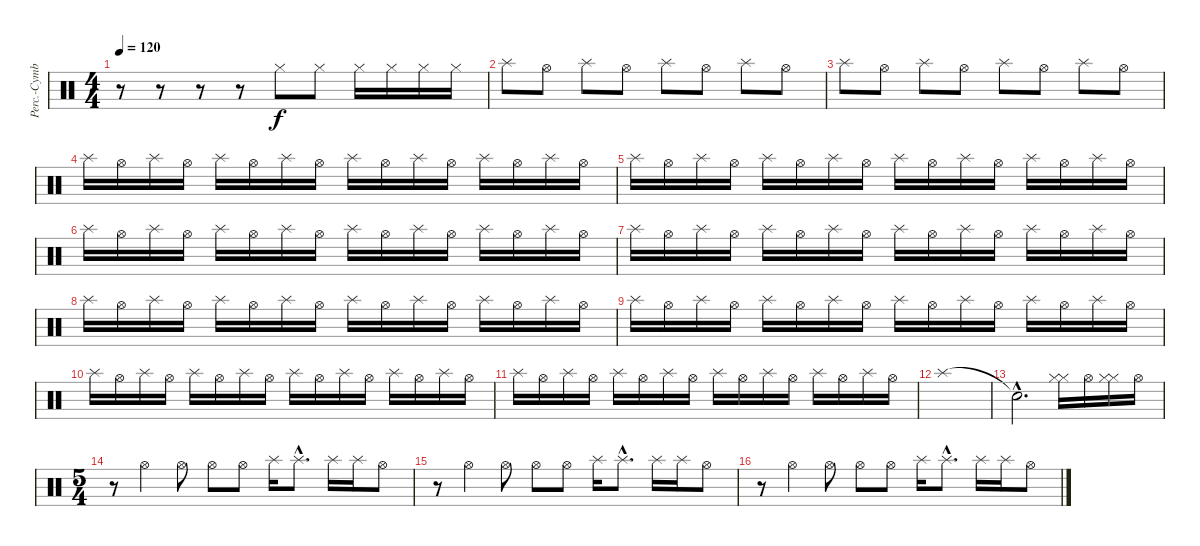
\track ("Perc.-Cymbals 1" "Perc.-Cymb") {instrument percussion}
\staff {score}
\articulation defaults
\ts (4 4)
\tempo 120
\clef neutral
\ks c
r.8{dy f} r.8 r.8 r.8 "Hi-Hat (closed)".8 "Hi-Hat (closed)".8 "Hi-Hat (closed)".16 "Hi-Hat (closed)".16 "Hi-Hat (closed)".16 "Hi-Hat (closed)".16 |
"Splash (hit)".8 "Hi-Hat (open)".8 "Splash (hit)".8 "Hi-Hat (open)".8 "Splash (hit)".8 "Hi-Hat (open)".8 "Splash (hit)".8 "Hi-Hat (open)".8 |
"Splash (hit)".8 "Hi-Hat (open)".8 "Splash (hit)".8 "Hi-Hat (open)".8 "Splash (hit)".8 "Hi-Hat (open)".8 "Splash (hit)".8 "Hi-Hat (open)".8 |
"Splash (hit)".16 "Hi-Hat (open)".16 "Splash (hit)".16 "Hi-Hat (open)".16 "Splash (hit)".16 "Hi-Hat (open)".16 "Splash (hit)".16 "Hi-Hat (open)".16 "Splash (hit)".16 "Hi-Hat (open)".16 "Splash (hit)".16 "Hi-Hat (open)".16 "Splash (hit)".16 "Hi-Hat (open)".16 "Splash (hit)".16 "Hi-Hat (open)".16 |
"Splash (hit)".16 "Hi-Hat (open)".16 "Splash (hit)".16 "Hi-Hat (open)".16 "Splash (hit)".16 "Hi-Hat (open)".16 "Splash (hit)".16 "Hi-Hat (open)".16 "Splash (hit)".16 "Hi-Hat (open)".16 "Splash (hit)".16 "Hi-Hat (open)".16 "Splash (hit)".16 "Hi-Hat (open)".16 "Splash (hit)".16 "Hi-Hat (open)".16 |
"Splash (hit)".16 "Hi-Hat (open)".16 "Splash (hit)".16 "Hi-Hat (open)".16 "Splash (hit)".16 "Hi-Hat (open)".16 "Splash (hit)".16 "Hi-Hat (open)".16 "Splash (hit)".16 "Hi-Hat (open)".16 "Splash (hit)".16 "Hi-Hat (open)".16 "Splash (hit)".16 "Hi-Hat (open)".16 "Splash (hit)".16 "Hi-Hat (open)".16 |
"Splash (hit)".16 "Hi-Hat (open)".16 "Splash (hit)".16 "Hi-Hat (open)".16 "Splash (hit)".16 "Hi-Hat (open)".16 "Splash (hit)".16 "Hi-Hat (open)".16 "Splash (hit)".16 "Hi-Hat (open)".16 "Splash (hit)".16 "Hi-Hat (open)".16 "Splash (hit)".16 "Hi-Hat (open)".16 "Splash (hit)".16 "Hi-Hat (open)".16 |
"Splash (hit)".16 "Hi-Hat (open)".16 "Splash (hit)".16 "Hi-Hat (open)".16 "Splash (hit)".16 "Hi-Hat (open)".16 "Splash (hit)".16 "Hi-Hat (open)".16 "Splash (hit)".16 "Hi-Hat (open)".16 "Splash (hit)".16 "Hi-Hat (open)".16 "Splash (hit)".16 "Hi-Hat (open)".16 "Splash (hit)".16 "Hi-Hat (open)".16 |
"Splash (hit)".16 "Hi-Hat (open)".16 "Splash (hit)".16 "Hi-Hat (open)".16 "Splash (hit)".16 "Hi-Hat (open)".16 "Splash (hit)".16 "Hi-Hat (open)".16 "Splash (hit)".16 "Hi-Hat (open)".16 "Splash (hit)".16 "Hi-Hat (open)".16 "Splash (hit)".16 "Hi-Hat (open)".16 "Splash (hit)".16 "Hi-Hat (open)".16 |
"Splash (hit)".16 "Hi-Hat (open)".16 "Splash (hit)".16 "Hi-Hat (open)".16 "Splash (hit)".16 "Hi-Hat (open)".16 "Splash (hit)".16 "Hi-Hat (open)".16 "Splash (hit)".16 "Hi-Hat (open)".16 "Splash (hit)".16 "Hi-Hat (open)".16 "Splash (hit)".16 "Hi-Hat (open)".16 "Splash (hit)".16 "Hi-Hat (open)".16 |
"Splash (hit)".16 "Hi-Hat (open)".16 "Splash (hit)".16 "Hi-Hat (open)".16 "Splash (hit)".16 "Hi-Hat (open)".16 "Splash (hit)".16 "Hi-Hat (open)".16 "Splash (hit)".16 "Hi-Hat (open)".16 "Splash (hit)".16 "Hi-Hat (open)".16 "Splash (hit)".16 "Hi-Hat (open)".16 "Splash (hit)".16 "Hi-Hat (open)".16 |
"Splash (hit)".1 |
"Snare (hit)"{hac t}.2{d} ("Hi-Hat (closed)" "Hi-Hat (closed)").16 "Hi-Hat (open)".16 ("Hi-Hat (closed)" "Hi-Hat (closed)").16 "Hi-Hat (open)".16 |
\ts (5 4)
r.8 "Hi-Hat (open)".4 "Hi-Hat (open)".8 "Hi-Hat (open)".8 "Hi-Hat (open)".8 "Splash (hit)".16 "Splash (hit)"{hac}.8{d} "Splash (hit)".16 "Splash (hit)".16 "Hi-Hat (open)".8 |
r.8 "Hi-Hat (open)".4 "Hi-Hat (open)".8 "Hi-Hat (open)".8 "Hi-Hat (open)".8 "Splash (hit)".16 "Splash (hit)"{hac}.8{d} "Splash (hit)".16 "Splash (hit)".16 "Hi-Hat (open)".8 |
r.8 "Hi-Hat (open)".4 "Hi-Hat (open)".8 "Hi-Hat (open)".8 "Hi-Hat (open)".8 "Splash (hit)".16 "Splash (hit)"{hac}.8{d} "Splash (hit)".16 "Splash (hit)".16 "Hi-Hat (open)".8
